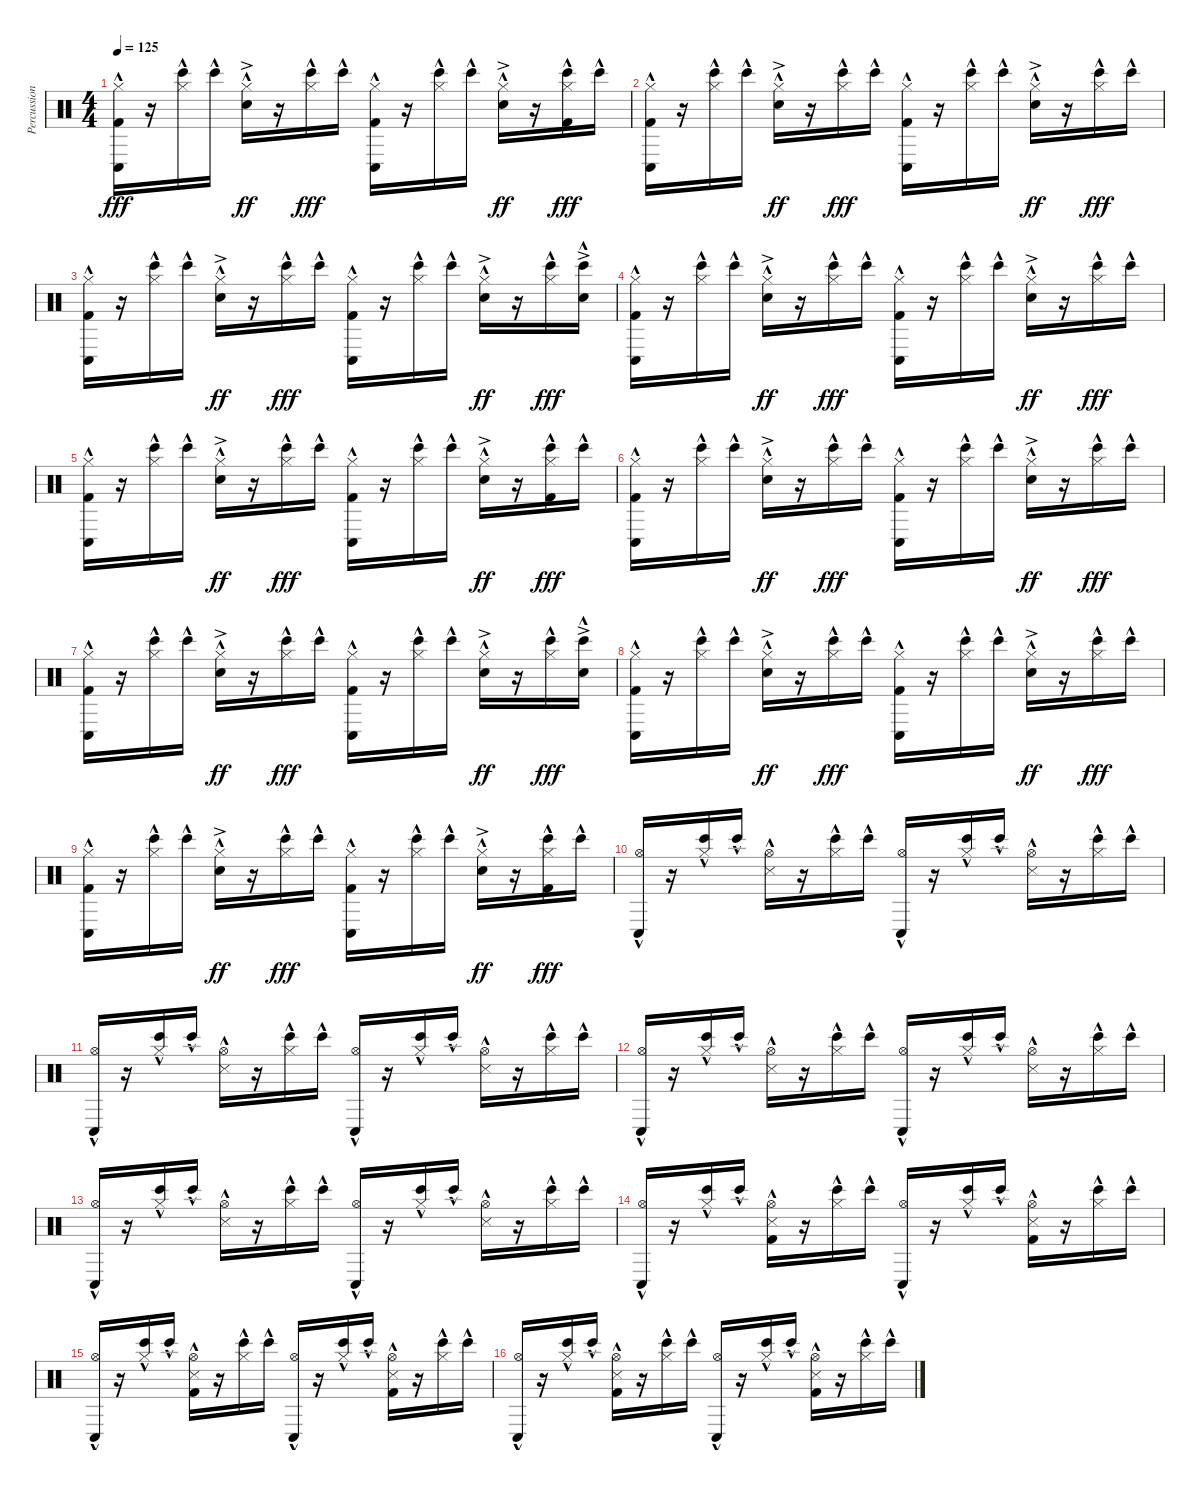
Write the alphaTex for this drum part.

\track ("Percussion" "Percussion") {instrument percussion}
\staff {score}
\articulation defaults
\ts (4 4)
\tempo 125
\clef neutral
\ks c
("Hi-Hat (closed)"{hac} "Conga low (hit)"{hac} "Kick (hit) 2"{hac}).16{dy fff} r.16 ("Hi-Hat (closed)"{hac} "Bongo High (hit)"{hac}).16 "Bongo High (hit)"{hac}.16 ("Hi-Hat (closed)"{hac} "Snare (hit) 2"{ac}).16{dy ff} r.16 ("Hi-Hat (closed)"{hac} "Bongo High (hit)"{hac}).16{dy fff} "Bongo High (hit)"{hac}.16 ("Hi-Hat (closed)"{hac} "Conga low (hit)"{hac} "Kick (hit) 2"{hac}).16 r.16 ("Hi-Hat (closed)"{hac} "Bongo High (hit)"{hac}).16 "Bongo High (hit)"{hac}.16 ("Hi-Hat (closed)"{hac} "Snare (hit) 2"{ac}).16{dy ff} r.16 ("Hi-Hat (closed)"{hac} "Bongo High (hit)"{hac} "Kick (hit) 2"{hac}).16{dy fff} "Bongo High (hit)"{hac}.16 |
("Hi-Hat (closed)"{hac} "Conga low (hit)"{hac} "Kick (hit) 2"{hac}).16 r.16 ("Hi-Hat (closed)"{hac} "Bongo High (hit)"{hac}).16 "Bongo High (hit)"{hac}.16 ("Hi-Hat (closed)"{hac} "Snare (hit) 2"{ac}).16{dy ff} r.16 ("Hi-Hat (closed)"{hac} "Bongo High (hit)"{hac}).16{dy fff} "Bongo High (hit)"{hac}.16 ("Hi-Hat (closed)"{hac} "Conga low (hit)"{hac} "Kick (hit) 2"{hac}).16 r.16 ("Hi-Hat (closed)"{hac} "Bongo High (hit)"{hac}).16 "Bongo High (hit)"{hac}.16 ("Hi-Hat (closed)"{hac} "Snare (hit) 2"{ac}).16{dy ff} r.16 ("Hi-Hat (closed)"{hac} "Bongo High (hit)"{hac}).16{dy fff} "Bongo High (hit)"{hac}.16 |
("Hi-Hat (closed)"{hac} "Conga low (hit)"{hac} "Kick (hit) 2"{hac}).16 r.16 ("Hi-Hat (closed)"{hac} "Bongo High (hit)"{hac}).16 "Bongo High (hit)"{hac}.16 ("Hi-Hat (closed)"{hac} "Snare (hit) 2"{ac}).16{dy ff} r.16 ("Hi-Hat (closed)"{hac} "Bongo High (hit)"{hac}).16{dy fff} "Bongo High (hit)"{hac}.16 ("Hi-Hat (closed)"{hac} "Conga low (hit)"{hac} "Kick (hit) 2"{hac}).16 r.16 ("Hi-Hat (closed)"{hac} "Bongo High (hit)"{hac}).16 "Bongo High (hit)"{hac}.16 ("Hi-Hat (closed)"{hac} "Snare (hit) 2"{ac}).16{dy ff} r.16 ("Hi-Hat (closed)"{hac} "Bongo High (hit)"{hac}).16{dy fff} ("Snare (hit) 2"{ac} "Bongo High (hit)"{hac}).16 |
("Hi-Hat (closed)"{hac} "Conga low (hit)"{hac} "Kick (hit) 2"{hac}).16 r.16 ("Hi-Hat (closed)"{hac} "Bongo High (hit)"{hac}).16 "Bongo High (hit)"{hac}.16 ("Hi-Hat (closed)"{hac} "Snare (hit) 2"{ac}).16{dy ff} r.16 ("Hi-Hat (closed)"{hac} "Bongo High (hit)"{hac}).16{dy fff} "Bongo High (hit)"{hac}.16 ("Hi-Hat (closed)"{hac} "Conga low (hit)"{hac} "Kick (hit) 2"{hac}).16 r.16 ("Hi-Hat (closed)"{hac} "Bongo High (hit)"{hac}).16 "Bongo High (hit)"{hac}.16 ("Hi-Hat (closed)"{hac} "Snare (hit) 2"{ac}).16{dy ff} r.16 ("Hi-Hat (closed)"{hac} "Bongo High (hit)"{hac}).16{dy fff} "Bongo High (hit)"{hac}.16 |
("Hi-Hat (closed)"{hac} "Conga low (hit)"{hac} "Kick (hit) 2"{hac}).16 r.16 ("Hi-Hat (closed)"{hac} "Bongo High (hit)"{hac}).16 "Bongo High (hit)"{hac}.16 ("Hi-Hat (closed)"{hac} "Snare (hit) 2"{ac}).16{dy ff} r.16 ("Hi-Hat (closed)"{hac} "Bongo High (hit)"{hac}).16{dy fff} "Bongo High (hit)"{hac}.16 ("Hi-Hat (closed)"{hac} "Conga low (hit)"{hac} "Kick (hit) 2"{hac}).16 r.16 ("Hi-Hat (closed)"{hac} "Bongo High (hit)"{hac}).16 "Bongo High (hit)"{hac}.16 ("Hi-Hat (closed)"{hac} "Snare (hit) 2"{ac}).16{dy ff} r.16 ("Hi-Hat (closed)"{hac} "Bongo High (hit)"{hac} "Kick (hit) 2"{hac}).16{dy fff} "Bongo High (hit)"{hac}.16 |
("Hi-Hat (closed)"{hac} "Conga low (hit)"{hac} "Kick (hit) 2"{hac}).16 r.16 ("Hi-Hat (closed)"{hac} "Bongo High (hit)"{hac}).16 "Bongo High (hit)"{hac}.16 ("Hi-Hat (closed)"{hac} "Snare (hit) 2"{ac}).16{dy ff} r.16 ("Hi-Hat (closed)"{hac} "Bongo High (hit)"{hac}).16{dy fff} "Bongo High (hit)"{hac}.16 ("Hi-Hat (closed)"{hac} "Conga low (hit)"{hac} "Kick (hit) 2"{hac}).16 r.16 ("Hi-Hat (closed)"{hac} "Bongo High (hit)"{hac}).16 "Bongo High (hit)"{hac}.16 ("Hi-Hat (closed)"{hac} "Snare (hit) 2"{ac}).16{dy ff} r.16 ("Hi-Hat (closed)"{hac} "Bongo High (hit)"{hac}).16{dy fff} "Bongo High (hit)"{hac}.16 |
("Hi-Hat (closed)"{hac} "Conga low (hit)"{hac} "Kick (hit) 2"{hac}).16 r.16 ("Hi-Hat (closed)"{hac} "Bongo High (hit)"{hac}).16 "Bongo High (hit)"{hac}.16 ("Hi-Hat (closed)"{hac} "Snare (hit) 2"{ac}).16{dy ff} r.16 ("Hi-Hat (closed)"{hac} "Bongo High (hit)"{hac}).16{dy fff} "Bongo High (hit)"{hac}.16 ("Hi-Hat (closed)"{hac} "Conga low (hit)"{hac} "Kick (hit) 2"{hac}).16 r.16 ("Hi-Hat (closed)"{hac} "Bongo High (hit)"{hac}).16 "Bongo High (hit)"{hac}.16 ("Hi-Hat (closed)"{hac} "Snare (hit) 2"{ac}).16{dy ff} r.16 ("Hi-Hat (closed)"{hac} "Bongo High (hit)"{hac}).16{dy fff} ("Snare (hit) 2"{ac} "Bongo High (hit)"{hac}).16 |
("Hi-Hat (closed)"{hac} "Conga low (hit)"{hac} "Kick (hit) 2"{hac}).16 r.16 ("Hi-Hat (closed)"{hac} "Bongo High (hit)"{hac}).16 "Bongo High (hit)"{hac}.16 ("Hi-Hat (closed)"{hac} "Snare (hit) 2"{ac}).16{dy ff} r.16 ("Hi-Hat (closed)"{hac} "Bongo High (hit)"{hac}).16{dy fff} "Bongo High (hit)"{hac}.16 ("Hi-Hat (closed)"{hac} "Conga low (hit)"{hac} "Kick (hit) 2"{hac}).16 r.16 ("Hi-Hat (closed)"{hac} "Bongo High (hit)"{hac}).16 "Bongo High (hit)"{hac}.16 ("Hi-Hat (closed)"{hac} "Snare (hit) 2"{ac}).16{dy ff} r.16 ("Hi-Hat (closed)"{hac} "Bongo High (hit)"{hac}).16{dy fff} "Bongo High (hit)"{hac}.16 |
("Hi-Hat (closed)"{hac} "Conga low (hit)"{hac} "Kick (hit) 2"{hac}).16 r.16 ("Hi-Hat (closed)"{hac} "Bongo High (hit)"{hac}).16 "Bongo High (hit)"{hac}.16 ("Hi-Hat (closed)"{hac} "Snare (hit) 2"{ac}).16{dy ff} r.16 ("Hi-Hat (closed)"{hac} "Bongo High (hit)"{hac}).16{dy fff} "Bongo High (hit)"{hac}.16 ("Hi-Hat (closed)"{hac} "Conga low (hit)"{hac} "Kick (hit) 2"{hac}).16 r.16 ("Hi-Hat (closed)"{hac} "Bongo High (hit)"{hac}).16 "Bongo High (hit)"{hac}.16 ("Hi-Hat (closed)"{hac} "Snare (hit) 2"{ac}).16{dy ff} r.16 ("Hi-Hat (closed)"{hac} "Bongo High (hit)"{hac} "Kick (hit) 2"{hac}).16{dy fff} "Bongo High (hit)"{hac}.16 |
("Hi-Hat (open)"{hac} "Conga low (hit)"{hac}).16 r.16 ("Hi-Hat (closed)"{hac} "Bongo High (hit)"{hac}).16 "Bongo High (hit)"{hac}.16 ("Hi-Hat (open)"{hac} "Snare (side stick) 3"{hac}).16 r.16 ("Hi-Hat (closed)"{hac} "Bongo High (hit)"{hac}).16 "Bongo High (hit)"{hac}.16 ("Hi-Hat (open)"{hac} "Conga low (hit)"{hac}).16 r.16 ("Hi-Hat (closed)"{hac} "Bongo High (hit)"{hac}).16 "Bongo High (hit)"{hac}.16 ("Hi-Hat (open)"{hac} "Snare (side stick) 3"{hac}).16 r.16 ("Hi-Hat (closed)"{hac} "Bongo High (hit)"{hac}).16 "Bongo High (hit)"{hac}.16 |
("Hi-Hat (open)"{hac} "Conga low (hit)"{hac}).16 r.16 ("Hi-Hat (closed)"{hac} "Bongo High (hit)"{hac}).16 "Bongo High (hit)"{hac}.16 ("Hi-Hat (open)"{hac} "Snare (side stick) 3"{hac}).16 r.16 ("Hi-Hat (closed)"{hac} "Bongo High (hit)"{hac}).16 "Bongo High (hit)"{hac}.16 ("Hi-Hat (open)"{hac} "Conga low (hit)"{hac}).16 r.16 ("Hi-Hat (closed)"{hac} "Bongo High (hit)"{hac}).16 "Bongo High (hit)"{hac}.16 ("Hi-Hat (open)"{hac} "Snare (side stick) 3"{hac}).16 r.16 ("Hi-Hat (closed)"{hac} "Bongo High (hit)"{hac}).16 "Bongo High (hit)"{hac}.16 |
("Hi-Hat (open)"{hac} "Conga low (hit)"{hac}).16 r.16 ("Hi-Hat (closed)"{hac} "Bongo High (hit)"{hac}).16 "Bongo High (hit)"{hac}.16 ("Hi-Hat (open)"{hac} "Snare (side stick) 3"{hac}).16 r.16 ("Hi-Hat (closed)"{hac} "Bongo High (hit)"{hac}).16 "Bongo High (hit)"{hac}.16 ("Hi-Hat (open)"{hac} "Conga low (hit)"{hac}).16 r.16 ("Hi-Hat (closed)"{hac} "Bongo High (hit)"{hac}).16 "Bongo High (hit)"{hac}.16 ("Hi-Hat (open)"{hac} "Snare (side stick) 3"{hac}).16 r.16 ("Hi-Hat (closed)"{hac} "Bongo High (hit)"{hac}).16 "Bongo High (hit)"{hac}.16 |
("Hi-Hat (open)"{hac} "Conga low (hit)"{hac}).16 r.16 ("Hi-Hat (closed)"{hac} "Bongo High (hit)"{hac}).16 "Bongo High (hit)"{hac}.16 ("Hi-Hat (open)"{hac} "Snare (side stick) 3"{hac}).16 r.16 ("Hi-Hat (closed)"{hac} "Bongo High (hit)"{hac}).16 "Bongo High (hit)"{hac}.16 ("Hi-Hat (open)"{hac} "Conga low (hit)"{hac}).16 r.16 ("Hi-Hat (closed)"{hac} "Bongo High (hit)"{hac}).16 "Bongo High (hit)"{hac}.16 ("Hi-Hat (open)"{hac} "Snare (side stick) 3"{hac}).16 r.16 ("Hi-Hat (closed)"{hac} "Bongo High (hit)"{hac}).16 "Bongo High (hit)"{hac}.16 |
("Hi-Hat (open)"{hac} "Conga low (hit)"{hac}).16 r.16 ("Hi-Hat (closed)"{hac} "Bongo High (hit)"{hac}).16 "Bongo High (hit)"{hac}.16 ("Hi-Hat (open)"{hac} "Snare (side stick) 3"{hac} "Kick (hit) 2"{hac}).16 r.16 ("Hi-Hat (closed)"{hac} "Bongo High (hit)"{hac}).16 "Bongo High (hit)"{hac}.16 ("Hi-Hat (open)"{hac} "Conga low (hit)"{hac}).16 r.16 ("Hi-Hat (closed)"{hac} "Bongo High (hit)"{hac}).16 "Bongo High (hit)"{hac}.16 ("Hi-Hat (open)"{hac} "Snare (side stick) 3"{hac} "Kick (hit) 2"{hac}).16 r.16 ("Hi-Hat (closed)"{hac} "Bongo High (hit)"{hac}).16 "Bongo High (hit)"{hac}.16 |
("Hi-Hat (open)"{hac} "Conga low (hit)"{hac}).16 r.16 ("Hi-Hat (closed)"{hac} "Bongo High (hit)"{hac}).16 "Bongo High (hit)"{hac}.16 ("Hi-Hat (open)"{hac} "Snare (side stick) 3"{hac} "Kick (hit) 2"{hac}).16 r.16 ("Hi-Hat (closed)"{hac} "Bongo High (hit)"{hac}).16 "Bongo High (hit)"{hac}.16 ("Hi-Hat (open)"{hac} "Conga low (hit)"{hac}).16 r.16 ("Hi-Hat (closed)"{hac} "Bongo High (hit)"{hac}).16 "Bongo High (hit)"{hac}.16 ("Hi-Hat (open)"{hac} "Snare (side stick) 3"{hac} "Kick (hit) 2"{hac}).16 r.16 ("Hi-Hat (closed)"{hac} "Bongo High (hit)"{hac}).16 "Bongo High (hit)"{hac}.16 |
("Hi-Hat (open)"{hac} "Conga low (hit)"{hac}).16 r.16 ("Hi-Hat (closed)"{hac} "Bongo High (hit)"{hac}).16 "Bongo High (hit)"{hac}.16 ("Hi-Hat (open)"{hac} "Snare (side stick) 3"{hac} "Kick (hit) 2"{hac}).16 r.16 ("Hi-Hat (closed)"{hac} "Bongo High (hit)"{hac}).16 "Bongo High (hit)"{hac}.16 ("Hi-Hat (open)"{hac} "Conga low (hit)"{hac}).16 r.16 ("Hi-Hat (closed)"{hac} "Bongo High (hit)"{hac}).16 "Bongo High (hit)"{hac}.16 ("Hi-Hat (open)"{hac} "Snare (side stick) 3"{hac} "Kick (hit) 2"{hac}).16 r.16 ("Hi-Hat (closed)"{hac} "Bongo High (hit)"{hac}).16 "Bongo High (hit)"{hac}.16
